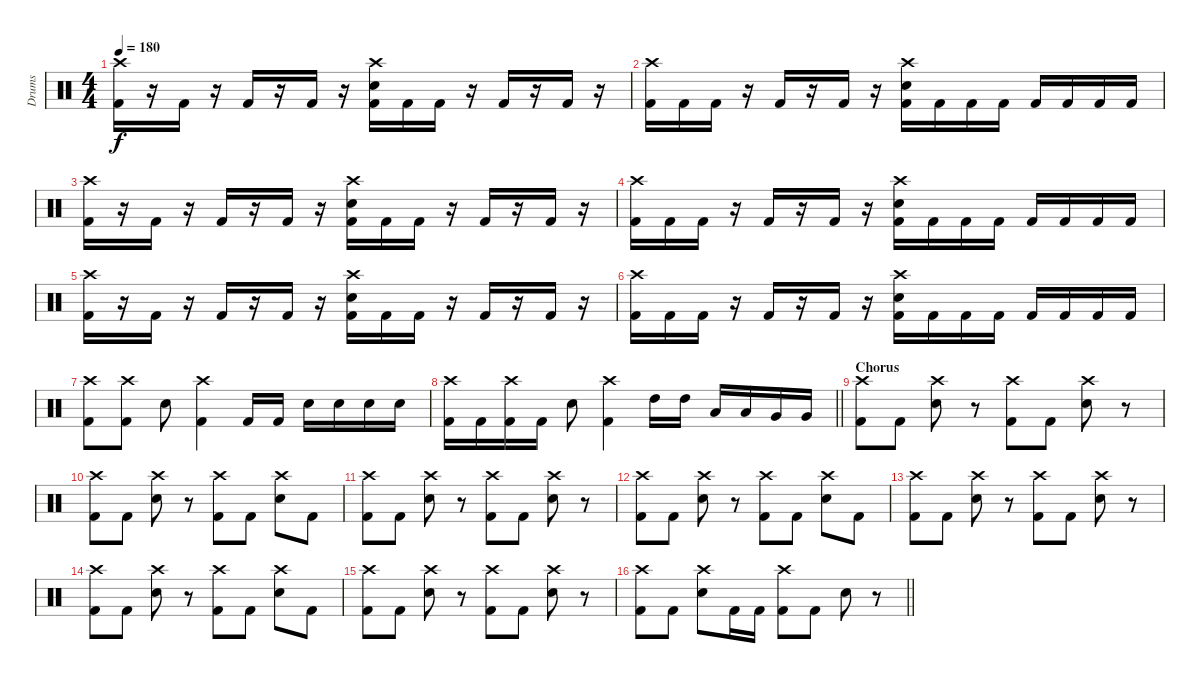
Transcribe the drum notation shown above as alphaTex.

\track ("Drums" "Drums") {instrument percussion}
\staff {score}
\articulation defaults
\ts (4 4)
\tempo 180
\clef neutral
\ks c
("Crash high (hit)" "Kick (hit) 2").16{dy f} r.16 "Kick (hit) 2".16 r.16 "Kick (hit) 2".16 r.16 "Kick (hit) 2".16 r.16 ("Crash high (hit)" "Electric Snare (hit)" "Kick (hit) 2").16 "Kick (hit) 2".16 "Kick (hit) 2".16 r.16 "Kick (hit) 2".16 r.16 "Kick (hit) 2".16 r.16 |
("Crash high (hit)" "Kick (hit) 2").16 "Kick (hit) 2".16 "Kick (hit) 2".16 r.16 "Kick (hit) 2".16 r.16 "Kick (hit) 2".16 r.16 ("Crash high (hit)" "Electric Snare (hit)" "Kick (hit) 2").16 "Kick (hit) 2".16 "Kick (hit) 2".16 "Kick (hit) 2".16 "Kick (hit) 2".16 "Kick (hit) 2".16 "Kick (hit) 2".16 "Kick (hit) 2".16 |
("Crash high (hit)" "Kick (hit) 2").16 r.16 "Kick (hit) 2".16 r.16 "Kick (hit) 2".16 r.16 "Kick (hit) 2".16 r.16 ("Crash high (hit)" "Electric Snare (hit)" "Kick (hit) 2").16 "Kick (hit) 2".16 "Kick (hit) 2".16 r.16 "Kick (hit) 2".16 r.16 "Kick (hit) 2".16 r.16 |
("Crash high (hit)" "Kick (hit) 2").16 "Kick (hit) 2".16 "Kick (hit) 2".16 r.16 "Kick (hit) 2".16 r.16 "Kick (hit) 2".16 r.16 ("Crash high (hit)" "Electric Snare (hit)" "Kick (hit) 2").16 "Kick (hit) 2".16 "Kick (hit) 2".16 "Kick (hit) 2".16 "Kick (hit) 2".16 "Kick (hit) 2".16 "Kick (hit) 2".16 "Kick (hit) 2".16 |
("Crash high (hit)" "Kick (hit) 2").16 r.16 "Kick (hit) 2".16 r.16 "Kick (hit) 2".16 r.16 "Kick (hit) 2".16 r.16 ("Crash high (hit)" "Electric Snare (hit)" "Kick (hit) 2").16 "Kick (hit) 2".16 "Kick (hit) 2".16 r.16 "Kick (hit) 2".16 r.16 "Kick (hit) 2".16 r.16 |
("Crash high (hit)" "Kick (hit) 2").16 "Kick (hit) 2".16 "Kick (hit) 2".16 r.16 "Kick (hit) 2".16 r.16 "Kick (hit) 2".16 r.16 ("Crash high (hit)" "Electric Snare (hit)" "Kick (hit) 2").16 "Kick (hit) 2".16 "Kick (hit) 2".16 "Kick (hit) 2".16 "Kick (hit) 2".16 "Kick (hit) 2".16 "Kick (hit) 2".16 "Kick (hit) 2".16 |
("Crash high (hit)" "Kick (hit) 2").8 ("Crash high (hit)" "Kick (hit) 2").8 "Electric Snare (hit)".8 ("Crash high (hit)" "Kick (hit) 2").4 "Kick (hit) 2".16 "Kick (hit) 2".16 "Electric Snare (hit)".16 "Electric Snare (hit)".16 "Electric Snare (hit)".16 "Electric Snare (hit)".16 |
\barLineRight lightlight
("Crash high (hit)" "Kick (hit) 2").16 "Kick (hit) 2".16 ("Crash high (hit)" "Kick (hit) 2").16 "Kick (hit) 2".16 "Electric Snare (hit)".8 ("Crash high (hit)" "Kick (hit) 2").4 "High Tom (hit)".16 "High Tom (hit)".16 "Low Tom (hit)".16 "Low Tom (hit)".16 "Very Low Tom (hit)".16 "Very Low Tom (hit)".16 |
\section ("" "Chorus")
("Crash high (hit)" "Kick (hit) 2").8 "Kick (hit) 2".8 ("Crash high (hit)" "Electric Snare (hit)").8 r.8 ("Crash high (hit)" "Kick (hit) 2").8 "Kick (hit) 2".8 ("Crash high (hit)" "Electric Snare (hit)").8 r.8 |
("Crash high (hit)" "Kick (hit) 2").8 "Kick (hit) 2".8 ("Crash high (hit)" "Electric Snare (hit)").8 r.8 ("Crash high (hit)" "Kick (hit) 2").8 "Kick (hit) 2".8 ("Crash high (hit)" "Electric Snare (hit)").8 "Kick (hit) 2".8 |
("Crash high (hit)" "Kick (hit) 2").8 "Kick (hit) 2".8 ("Crash high (hit)" "Electric Snare (hit)").8 r.8 ("Crash high (hit)" "Kick (hit) 2").8 "Kick (hit) 2".8 ("Crash high (hit)" "Electric Snare (hit)").8 r.8 |
("Crash high (hit)" "Kick (hit) 2").8 "Kick (hit) 2".8 ("Crash high (hit)" "Electric Snare (hit)").8 r.8 ("Crash high (hit)" "Kick (hit) 2").8 "Kick (hit) 2".8 ("Crash high (hit)" "Electric Snare (hit)").8 "Kick (hit) 2".8 |
("Crash high (hit)" "Kick (hit) 2").8 "Kick (hit) 2".8 ("Crash high (hit)" "Electric Snare (hit)").8 r.8 ("Crash high (hit)" "Kick (hit) 2").8 "Kick (hit) 2".8 ("Crash high (hit)" "Electric Snare (hit)").8 r.8 |
("Crash high (hit)" "Kick (hit) 2").8 "Kick (hit) 2".8 ("Crash high (hit)" "Electric Snare (hit)").8 r.8 ("Crash high (hit)" "Kick (hit) 2").8 "Kick (hit) 2".8 ("Crash high (hit)" "Electric Snare (hit)").8 "Kick (hit) 2".8 |
("Crash high (hit)" "Kick (hit) 2").8 "Kick (hit) 2".8 ("Crash high (hit)" "Electric Snare (hit)").8 r.8 ("Crash high (hit)" "Kick (hit) 2").8 "Kick (hit) 2".8 ("Crash high (hit)" "Electric Snare (hit)").8 r.8 |
\barLineRight lightlight
("Crash high (hit)" "Kick (hit) 2").8 "Kick (hit) 2".8 ("Crash high (hit)" "Electric Snare (hit)").8 "Kick (hit) 2".16 "Kick (hit) 2".16 ("Crash high (hit)" "Kick (hit) 2").8 "Kick (hit) 2".8 "Electric Snare (hit)".8 r.8
